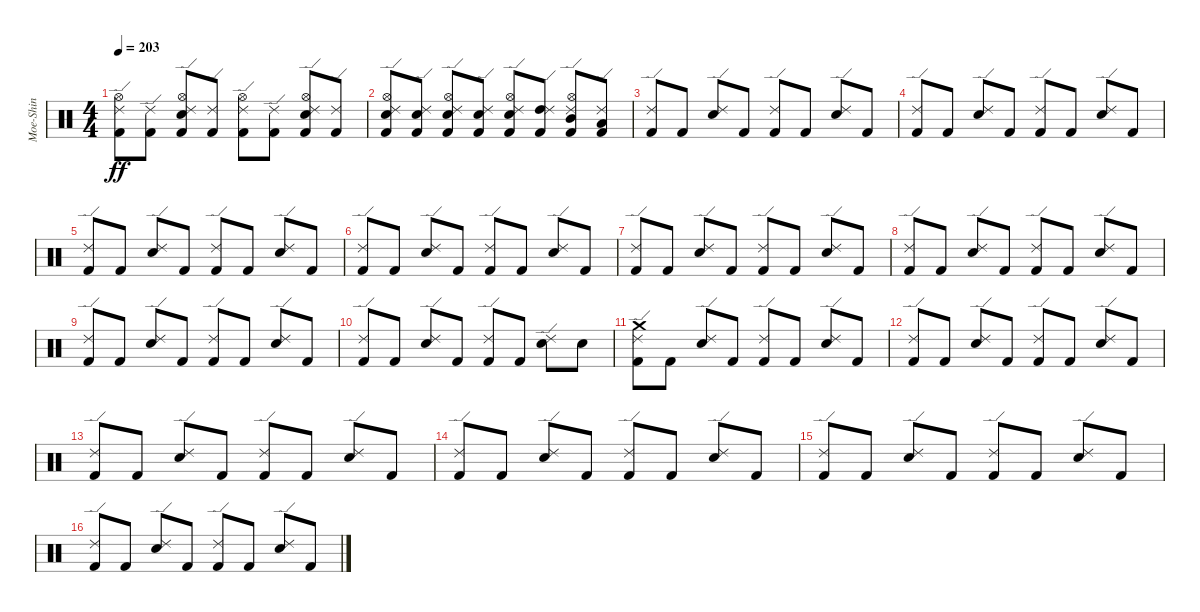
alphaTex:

\track ("Moe-Shin" "Moe-Shin") {instrument percussion}
\staff {score}
\articulation defaults
\ts (4 4)
\tempo 203
\clef neutral
\ks c
("Kick (hit) 2" "Ride (edge) 2" "Hi-Hat (open)").8{dy ff} ("Ride (edge) 2" "Kick (hit) 2").8 ("Ride (edge) 2" "Hi-Hat (open)" "Kick (hit) 2" "Snare (hit) 2").8 ("Ride (edge) 2" "Kick (hit) 2").8 ("Hi-Hat (open)" "Ride (edge) 2" "Kick (hit) 2").8 ("Ride (edge) 2" "Kick (hit) 2").8 ("Snare (hit) 2" "Kick (hit) 2" "Ride (edge) 2" "Hi-Hat (open)").8 ("Ride (edge) 2" "Kick (hit) 2").8 |
("Ride (edge) 2" "Kick (hit) 2" "Snare (hit) 2" "Hi-Hat (open)").8 ("Kick (hit) 2" "Ride (edge) 2" "Snare (hit) 2").8 ("Snare (hit) 2" "Ride (edge) 2" "Hi-Hat (open)" "Kick (hit) 2").8 ("Ride (edge) 2" "Snare (hit) 2" "Kick (hit) 2").8 ("Kick (hit) 2" "Ride (edge) 2" "Hi-Hat (open)" "Snare (hit) 2").8 ("High Tom (hit)" "Kick (hit) 2" "Ride (edge) 2").8 ("Mid Tom (hit)" "Ride (edge) 2" "Hi-Hat (open)" "Kick (hit) 2").8 ("Low Tom (hit)" "Kick (hit) 2" "Ride (edge) 2").8 |
("Kick (hit) 2" "Ride (edge) 2").8 "Kick (hit) 2".8 ("Snare (hit) 2" "Ride (edge) 2").8 "Kick (hit) 2".8 ("Ride (edge) 2" "Kick (hit) 2").8 "Kick (hit) 2".8 ("Ride (edge) 2" "Snare (hit) 2").8 "Kick (hit) 2".8 |
("Ride (edge) 2" "Kick (hit) 2").8 "Kick (hit) 2".8 ("Snare (hit) 2" "Ride (edge) 2").8 "Kick (hit) 2".8 ("Ride (edge) 2" "Kick (hit) 2").8 "Kick (hit) 2".8 ("Snare (hit) 2" "Ride (edge) 2").8 "Kick (hit) 2".8 |
("Ride (edge) 2" "Kick (hit) 2").8 "Kick (hit) 2".8 ("Ride (edge) 2" "Snare (hit) 2").8 "Kick (hit) 2".8 ("Ride (edge) 2" "Kick (hit) 2").8 "Kick (hit) 2".8 ("Ride (edge) 2" "Snare (hit) 2").8 "Kick (hit) 2".8 |
("Kick (hit) 2" "Ride (edge) 2").8 "Kick (hit) 2".8 ("Ride (edge) 2" "Snare (hit) 2").8 "Kick (hit) 2".8 ("Kick (hit) 2" "Ride (edge) 2").8 "Kick (hit) 2".8 ("Snare (hit) 2" "Ride (edge) 2").8 "Kick (hit) 2".8 |
("Ride (edge) 2" "Kick (hit) 2").8 "Kick (hit) 2".8 ("Snare (hit) 2" "Ride (edge) 2").8 "Kick (hit) 2".8 ("Kick (hit) 2" "Ride (edge) 2").8 "Kick (hit) 2".8 ("Snare (hit) 2" "Ride (edge) 2").8 "Kick (hit) 2".8 |
("Ride (edge) 2" "Kick (hit) 2").8 "Kick (hit) 2".8 ("Snare (hit) 2" "Ride (edge) 2").8 "Kick (hit) 2".8 ("Ride (edge) 2" "Kick (hit) 2").8 "Kick (hit) 2".8 ("Snare (hit) 2" "Ride (edge) 2").8 "Kick (hit) 2".8 |
("Ride (edge) 2" "Kick (hit) 2").8 "Kick (hit) 2".8 ("Ride (edge) 2" "Snare (hit) 2").8 "Kick (hit) 2".8 ("Ride (edge) 2" "Kick (hit) 2").8 "Kick (hit) 2".8 ("Snare (hit) 2" "Ride (edge) 2").8 "Kick (hit) 2".8 |
("Kick (hit) 2" "Ride (edge) 2").8 "Kick (hit) 2".8 ("Snare (hit) 2" "Ride (edge) 2").8 "Kick (hit) 2".8 ("Kick (hit) 2" "Ride (edge) 2").8 "Kick (hit) 2".8 ("Ride (edge) 2" "Snare (hit) 2").8 "Snare (hit) 2".8 |
("Crash medium (hit)" "Kick (hit) 2" "Ride (edge) 2").8 "Kick (hit) 2".8 ("Snare (hit) 2" "Ride (edge) 2").8 "Kick (hit) 2".8 ("Kick (hit) 2" "Ride (edge) 2").8 "Kick (hit) 2".8 ("Snare (hit) 2" "Ride (edge) 2").8 "Kick (hit) 2".8 |
("Ride (edge) 2" "Kick (hit) 2").8 "Kick (hit) 2".8 ("Ride (edge) 2" "Snare (hit) 2").8 "Kick (hit) 2".8 ("Kick (hit) 2" "Ride (edge) 2").8 "Kick (hit) 2".8 ("Ride (edge) 2" "Snare (hit) 2").8 "Kick (hit) 2".8 |
("Kick (hit) 2" "Ride (edge) 2").8 "Kick (hit) 2".8 ("Snare (hit) 2" "Ride (edge) 2").8 "Kick (hit) 2".8 ("Kick (hit) 2" "Ride (edge) 2").8 "Kick (hit) 2".8 ("Ride (edge) 2" "Snare (hit) 2").8 "Kick (hit) 2".8 |
("Kick (hit) 2" "Ride (edge) 2").8 "Kick (hit) 2".8 ("Ride (edge) 2" "Snare (hit) 2").8 "Kick (hit) 2".8 ("Kick (hit) 2" "Ride (edge) 2").8 "Kick (hit) 2".8 ("Snare (hit) 2" "Ride (edge) 2").8 "Kick (hit) 2".8 |
("Ride (edge) 2" "Kick (hit) 2").8 "Kick (hit) 2".8 ("Snare (hit) 2" "Ride (edge) 2").8 "Kick (hit) 2".8 ("Kick (hit) 2" "Ride (edge) 2").8 "Kick (hit) 2".8 ("Ride (edge) 2" "Snare (hit) 2").8 "Kick (hit) 2".8 |
("Ride (edge) 2" "Kick (hit) 2").8 "Kick (hit) 2".8 ("Ride (edge) 2" "Snare (hit) 2").8 "Kick (hit) 2".8 ("Ride (edge) 2" "Kick (hit) 2").8 "Kick (hit) 2".8 ("Ride (edge) 2" "Snare (hit) 2").8 "Kick (hit) 2".8
